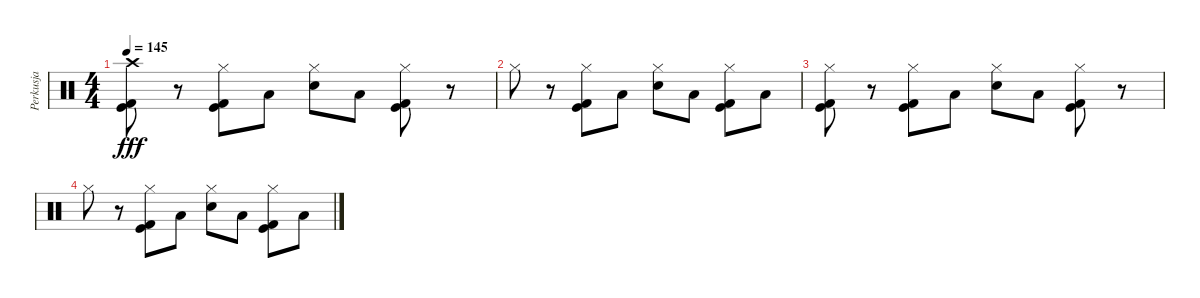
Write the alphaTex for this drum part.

\track ("Perkusja" "Perkusja") {instrument percussion}
\staff {score}
\articulation defaults
\ts (4 4)
\tempo 145
\clef neutral
\ks c
("Crash high (hit)" "Kick (hit)" "Kick (hit) 2").8{dy fff} r.8 ("Hi-Hat (closed)" "Kick (hit)" "Kick (hit) 2").8 "Low Floor Tom (hit)".8 ("Hi-Hat (closed)" "Electric Snare (hit)").8 "Low Floor Tom (hit)".8 ("Hi-Hat (closed)" "Kick (hit)" "Kick (hit) 2").8 r.8 |
"Hi-Hat (closed)".8 r.8 ("Hi-Hat (closed)" "Kick (hit)" "Kick (hit) 2").8 "Low Floor Tom (hit)".8 ("Hi-Hat (closed)" "Electric Snare (hit)").8 "Low Floor Tom (hit)".8 ("Hi-Hat (closed)" "Kick (hit)" "Kick (hit) 2").8 "Low Floor Tom (hit)".8 |
("Hi-Hat (closed)" "Kick (hit)" "Kick (hit) 2").8 r.8 ("Hi-Hat (closed)" "Kick (hit)" "Kick (hit) 2").8 "Low Floor Tom (hit)".8 ("Hi-Hat (closed)" "Electric Snare (hit)").8 "Low Floor Tom (hit)".8 ("Hi-Hat (closed)" "Kick (hit)" "Kick (hit) 2").8 r.8 |
"Hi-Hat (closed)".8 r.8 ("Hi-Hat (closed)" "Kick (hit)" "Kick (hit) 2").8 "Low Floor Tom (hit)".8 ("Hi-Hat (closed)" "Electric Snare (hit)").8 "Low Floor Tom (hit)".8 ("Hi-Hat (closed)" "Kick (hit)" "Kick (hit) 2").8 "Low Floor Tom (hit)".8
